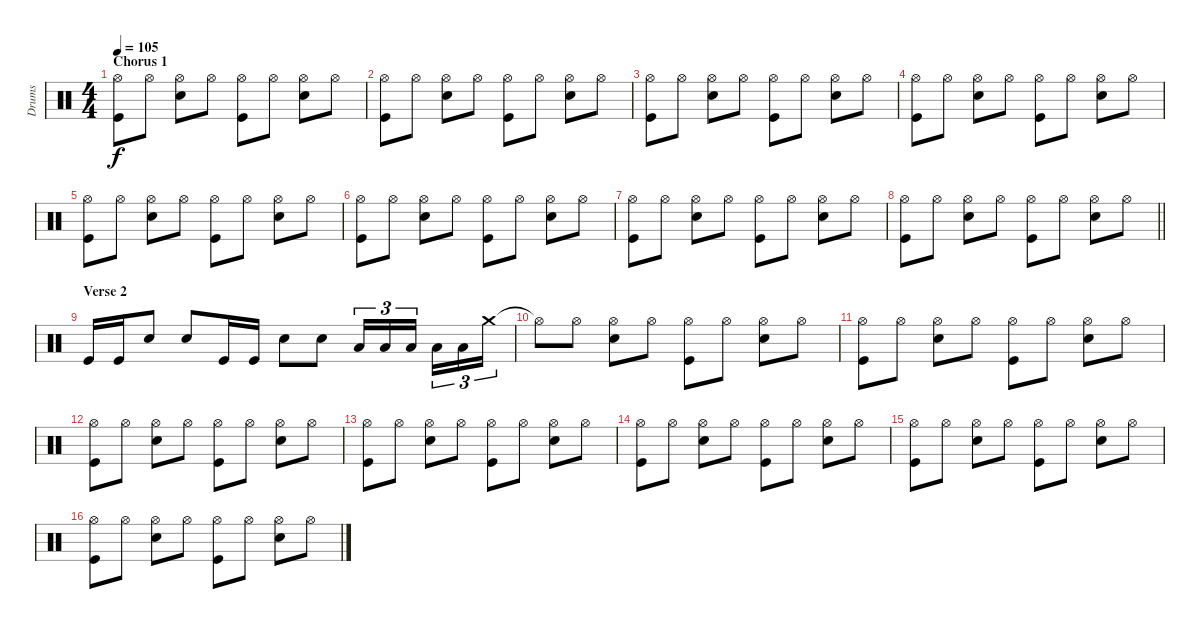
\track ("Drums" "Drums") {instrument percussion}
\staff {score}
\articulation defaults
\ts (4 4)
\section ("" "Chorus 1")
\tempo 105
\clef neutral
\ks c
("Kick (hit)" "Hi-Hat (open)").8{dy f} "Hi-Hat (open)".8 ("Electric Snare (hit)" "Hi-Hat (open)").8 "Hi-Hat (open)".8 ("Kick (hit)" "Hi-Hat (open)").8 "Hi-Hat (open)".8 ("Electric Snare (hit)" "Hi-Hat (open)").8 "Hi-Hat (open)".8 |
("Kick (hit)" "Hi-Hat (open)").8 "Hi-Hat (open)".8 ("Electric Snare (hit)" "Hi-Hat (open)").8 "Hi-Hat (open)".8 ("Kick (hit)" "Hi-Hat (open)").8 "Hi-Hat (open)".8 ("Electric Snare (hit)" "Hi-Hat (open)").8 "Hi-Hat (open)".8 |
("Kick (hit)" "Hi-Hat (open)").8 "Hi-Hat (open)".8 ("Electric Snare (hit)" "Hi-Hat (open)").8 "Hi-Hat (open)".8 ("Kick (hit)" "Hi-Hat (open)").8 "Hi-Hat (open)".8 ("Electric Snare (hit)" "Hi-Hat (open)").8 "Hi-Hat (open)".8 |
("Kick (hit)" "Hi-Hat (open)").8 "Hi-Hat (open)".8 ("Electric Snare (hit)" "Hi-Hat (open)").8 "Hi-Hat (open)".8 ("Kick (hit)" "Hi-Hat (open)").8 "Hi-Hat (open)".8 ("Electric Snare (hit)" "Hi-Hat (open)").8 "Hi-Hat (open)".8 |
("Kick (hit)" "Hi-Hat (open)").8 "Hi-Hat (open)".8 ("Electric Snare (hit)" "Hi-Hat (open)").8 "Hi-Hat (open)".8 ("Kick (hit)" "Hi-Hat (open)").8 "Hi-Hat (open)".8 ("Electric Snare (hit)" "Hi-Hat (open)").8 "Hi-Hat (open)".8 |
("Kick (hit)" "Hi-Hat (open)").8 "Hi-Hat (open)".8 ("Electric Snare (hit)" "Hi-Hat (open)").8 "Hi-Hat (open)".8 ("Kick (hit)" "Hi-Hat (open)").8 "Hi-Hat (open)".8 ("Electric Snare (hit)" "Hi-Hat (open)").8 "Hi-Hat (open)".8 |
("Kick (hit)" "Hi-Hat (open)").8 "Hi-Hat (open)".8 ("Electric Snare (hit)" "Hi-Hat (open)").8 "Hi-Hat (open)".8 ("Kick (hit)" "Hi-Hat (open)").8 "Hi-Hat (open)".8 ("Electric Snare (hit)" "Hi-Hat (open)").8 "Hi-Hat (open)".8 |
\barLineRight lightlight
("Kick (hit)" "Hi-Hat (open)").8 "Hi-Hat (open)".8 ("Electric Snare (hit)" "Hi-Hat (open)").8 "Hi-Hat (open)".8 ("Kick (hit)" "Hi-Hat (open)").8 "Hi-Hat (open)".8 ("Electric Snare (hit)" "Hi-Hat (open)").8 "Hi-Hat (open)".8 |
\section ("" "Verse 2")
"Kick (hit)".16 "Kick (hit)".16 "Electric Snare (hit)".8 "Electric Snare (hit)".8 "Kick (hit)".16 "Kick (hit)".16 "Electric Snare (hit)".8 "Electric Snare (hit)".8 "Low Tom (hit)".16{tu (3 2)} "Low Tom (hit)".16{tu (3 2)} "Low Tom (hit)".16{tu (3 2) beam splitsecondary} "Low Tom (hit)".16{tu (3 2)} "Low Tom (hit)".16{tu (3 2)} "Crash medium (hit)".16{tu (3 2)} |
"Hi-Hat (open)"{t}.8 "Hi-Hat (open)".8 ("Electric Snare (hit)" "Hi-Hat (open)").8 "Hi-Hat (open)".8 ("Kick (hit)" "Hi-Hat (open)").8 "Hi-Hat (open)".8 ("Electric Snare (hit)" "Hi-Hat (open)").8 "Hi-Hat (open)".8 |
("Kick (hit)" "Hi-Hat (open)").8 "Hi-Hat (open)".8 ("Electric Snare (hit)" "Hi-Hat (open)").8 "Hi-Hat (open)".8 ("Kick (hit)" "Hi-Hat (open)").8 "Hi-Hat (open)".8 ("Electric Snare (hit)" "Hi-Hat (open)").8 "Hi-Hat (open)".8 |
("Kick (hit)" "Hi-Hat (open)").8 "Hi-Hat (open)".8 ("Electric Snare (hit)" "Hi-Hat (open)").8 "Hi-Hat (open)".8 ("Kick (hit)" "Hi-Hat (open)").8 "Hi-Hat (open)".8 ("Electric Snare (hit)" "Hi-Hat (open)").8 "Hi-Hat (open)".8 |
("Kick (hit)" "Hi-Hat (open)").8 "Hi-Hat (open)".8 ("Electric Snare (hit)" "Hi-Hat (open)").8 "Hi-Hat (open)".8 ("Kick (hit)" "Hi-Hat (open)").8 "Hi-Hat (open)".8 ("Electric Snare (hit)" "Hi-Hat (open)").8 "Hi-Hat (open)".8 |
("Kick (hit)" "Hi-Hat (open)").8 "Hi-Hat (open)".8 ("Electric Snare (hit)" "Hi-Hat (open)").8 "Hi-Hat (open)".8 ("Kick (hit)" "Hi-Hat (open)").8 "Hi-Hat (open)".8 ("Electric Snare (hit)" "Hi-Hat (open)").8 "Hi-Hat (open)".8 |
("Kick (hit)" "Hi-Hat (open)").8 "Hi-Hat (open)".8 ("Electric Snare (hit)" "Hi-Hat (open)").8 "Hi-Hat (open)".8 ("Kick (hit)" "Hi-Hat (open)").8 "Hi-Hat (open)".8 ("Electric Snare (hit)" "Hi-Hat (open)").8 "Hi-Hat (open)".8 |
("Kick (hit)" "Hi-Hat (open)").8 "Hi-Hat (open)".8 ("Electric Snare (hit)" "Hi-Hat (open)").8 "Hi-Hat (open)".8 ("Kick (hit)" "Hi-Hat (open)").8 "Hi-Hat (open)".8 ("Electric Snare (hit)" "Hi-Hat (open)").8 "Hi-Hat (open)".8
